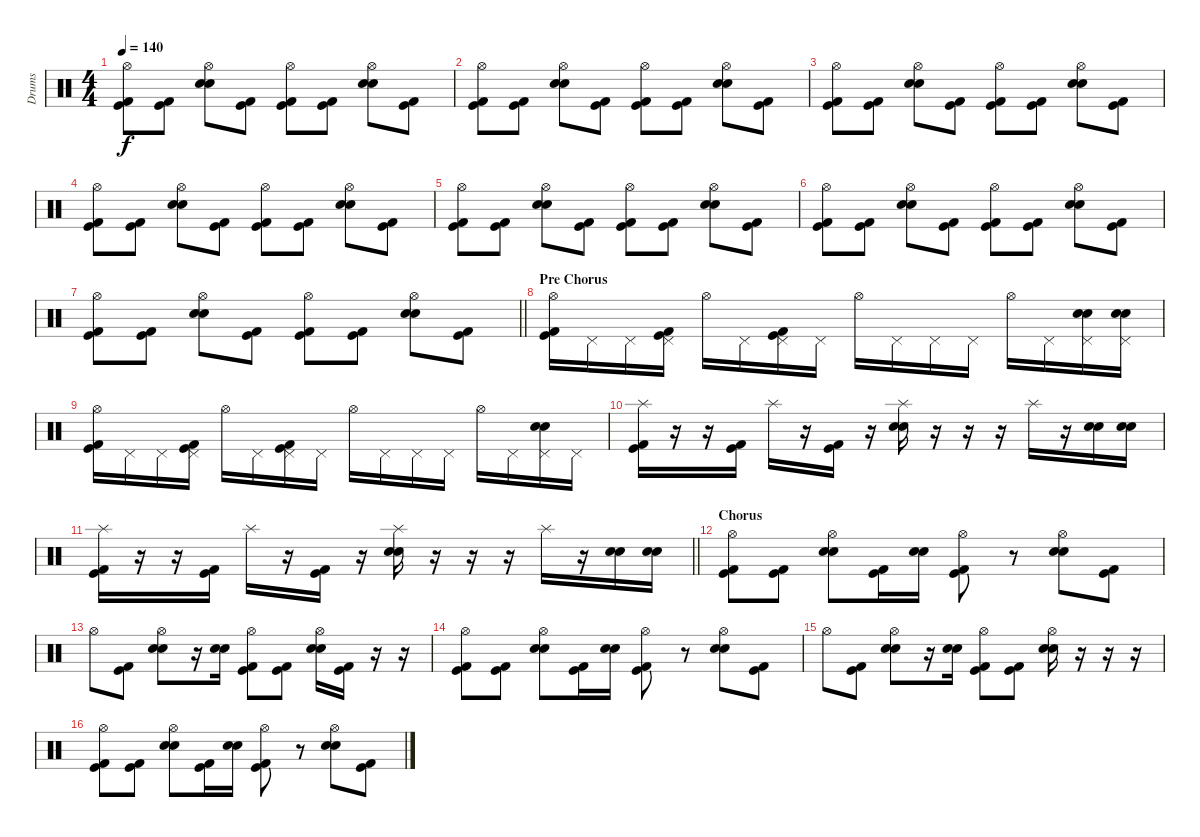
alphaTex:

\track ("Drums" "Drums") {instrument percussion}
\staff {score}
\articulation defaults
\ts (4 4)
\tempo 140
\clef neutral
\ks c
("Hi-Hat (open)" "Kick (hit) 2" "Kick (hit)").8{dy f} ("Kick (hit) 2" "Kick (hit)").8 ("Hi-Hat (open)" "Electric Snare (hit)" "Electric Snare (hit)").8 ("Kick (hit)" "Kick (hit) 2").8 ("Hi-Hat (open)" "Kick (hit) 2" "Kick (hit)").8 ("Kick (hit) 2" "Kick (hit)").8 ("Hi-Hat (open)" "Electric Snare (hit)" "Electric Snare (hit)").8 ("Kick (hit)" "Kick (hit) 2").8 |
("Hi-Hat (open)" "Kick (hit) 2" "Kick (hit)").8 ("Kick (hit) 2" "Kick (hit)").8 ("Hi-Hat (open)" "Electric Snare (hit)" "Electric Snare (hit)").8 ("Kick (hit)" "Kick (hit) 2").8 ("Hi-Hat (open)" "Kick (hit) 2" "Kick (hit)").8 ("Kick (hit) 2" "Kick (hit)").8 ("Hi-Hat (open)" "Electric Snare (hit)" "Electric Snare (hit)").8 ("Kick (hit)" "Kick (hit) 2").8 |
("Hi-Hat (open)" "Kick (hit) 2" "Kick (hit)").8 ("Kick (hit) 2" "Kick (hit)").8 ("Hi-Hat (open)" "Electric Snare (hit)" "Electric Snare (hit)").8 ("Kick (hit)" "Kick (hit) 2").8 ("Hi-Hat (open)" "Kick (hit) 2" "Kick (hit)").8 ("Kick (hit) 2" "Kick (hit)").8 ("Hi-Hat (open)" "Electric Snare (hit)" "Electric Snare (hit)").8 ("Kick (hit)" "Kick (hit) 2").8 |
("Hi-Hat (open)" "Kick (hit) 2" "Kick (hit)").8 ("Kick (hit) 2" "Kick (hit)").8 ("Hi-Hat (open)" "Electric Snare (hit)" "Electric Snare (hit)").8 ("Kick (hit)" "Kick (hit) 2").8 ("Hi-Hat (open)" "Kick (hit) 2" "Kick (hit)").8 ("Kick (hit) 2" "Kick (hit)").8 ("Hi-Hat (open)" "Electric Snare (hit)" "Electric Snare (hit)").8 ("Kick (hit)" "Kick (hit) 2").8 |
("Hi-Hat (open)" "Kick (hit) 2" "Kick (hit)").8 ("Kick (hit) 2" "Kick (hit)").8 ("Hi-Hat (open)" "Electric Snare (hit)" "Electric Snare (hit)").8 ("Kick (hit)" "Kick (hit) 2").8 ("Hi-Hat (open)" "Kick (hit) 2" "Kick (hit)").8 ("Kick (hit) 2" "Kick (hit)").8 ("Hi-Hat (open)" "Electric Snare (hit)" "Electric Snare (hit)").8 ("Kick (hit)" "Kick (hit) 2").8 |
("Hi-Hat (open)" "Kick (hit) 2" "Kick (hit)").8 ("Kick (hit) 2" "Kick (hit)").8 ("Hi-Hat (open)" "Electric Snare (hit)" "Electric Snare (hit)").8 ("Kick (hit)" "Kick (hit) 2").8 ("Hi-Hat (open)" "Kick (hit) 2" "Kick (hit)").8 ("Kick (hit) 2" "Kick (hit)").8 ("Hi-Hat (open)" "Electric Snare (hit)" "Electric Snare (hit)").8 ("Kick (hit)" "Kick (hit) 2").8 |
\barLineRight lightlight
("Hi-Hat (open)" "Kick (hit) 2" "Kick (hit)").8 ("Kick (hit) 2" "Kick (hit)").8 ("Hi-Hat (open)" "Electric Snare (hit)" "Electric Snare (hit)").8 ("Kick (hit)" "Kick (hit) 2").8 ("Hi-Hat (open)" "Kick (hit) 2" "Kick (hit)").8 ("Kick (hit) 2" "Kick (hit)").8 ("Hi-Hat (open)" "Electric Snare (hit)" "Electric Snare (hit)").8 ("Kick (hit)" "Kick (hit) 2").8 |
\section ("" "Pre Chorus")
("Hi-Hat (open)" "Kick (hit) 2" "Kick (hit)").16 "Pedal Hi-Hat (hit)".16 "Pedal Hi-Hat (hit)".16 ("Pedal Hi-Hat (hit)" "Kick (hit) 2" "Kick (hit)").16 "Hi-Hat (open)".16 "Pedal Hi-Hat (hit)".16 ("Pedal Hi-Hat (hit)" "Kick (hit) 2" "Kick (hit)").16 "Pedal Hi-Hat (hit)".16 "Hi-Hat (open)".16 "Pedal Hi-Hat (hit)".16 "Pedal Hi-Hat (hit)".16 "Pedal Hi-Hat (hit)".16 "Hi-Hat (open)".16 "Pedal Hi-Hat (hit)".16 ("Pedal Hi-Hat (hit)" "Electric Snare (hit)" "Electric Snare (hit)").16 ("Pedal Hi-Hat (hit)" "Electric Snare (hit)" "Electric Snare (hit)").16 |
("Hi-Hat (open)" "Kick (hit) 2" "Kick (hit)").16 "Pedal Hi-Hat (hit)".16 "Pedal Hi-Hat (hit)".16 ("Pedal Hi-Hat (hit)" "Kick (hit) 2" "Kick (hit)").16 "Hi-Hat (open)".16 "Pedal Hi-Hat (hit)".16 ("Pedal Hi-Hat (hit)" "Kick (hit) 2" "Kick (hit)").16 "Pedal Hi-Hat (hit)".16 "Hi-Hat (open)".16 "Pedal Hi-Hat (hit)".16 "Pedal Hi-Hat (hit)".16 "Pedal Hi-Hat (hit)".16 "Hi-Hat (open)".16 "Pedal Hi-Hat (hit)".16 ("Pedal Hi-Hat (hit)" "Electric Snare (hit)" "Electric Snare (hit)").16 "Pedal Hi-Hat (hit)".16 |
("Splash (hit)" "Kick (hit) 2" "Kick (hit)").16 r.16 r.16 ("Kick (hit) 2" "Kick (hit)").16 "Splash (hit)".16 r.16 ("Kick (hit) 2" "Kick (hit)").16 r.16 ("Splash (hit)" "Electric Snare (hit)" "Electric Snare (hit)").16 r.16 r.16 r.16 "Splash (hit)".16 r.16 ("Electric Snare (hit)" "Electric Snare (hit)").16 ("Electric Snare (hit)" "Electric Snare (hit)").16 |
\barLineRight lightlight
("Splash (hit)" "Kick (hit) 2" "Kick (hit)").16 r.16 r.16 ("Kick (hit) 2" "Kick (hit)").16 "Splash (hit)".16 r.16 ("Kick (hit) 2" "Kick (hit)").16 r.16 ("Splash (hit)" "Electric Snare (hit)" "Electric Snare (hit)").16 r.16 r.16 r.16 "Splash (hit)".16 r.16 ("Electric Snare (hit)" "Electric Snare (hit)").16 ("Electric Snare (hit)" "Electric Snare (hit)").16 |
\section ("" "Chorus")
("Hi-Hat (open)" "Kick (hit) 2" "Kick (hit)").8 ("Kick (hit) 2" "Kick (hit)").8 ("Hi-Hat (open)" "Electric Snare (hit)" "Electric Snare (hit)").8 ("Kick (hit) 2" "Kick (hit)").16 ("Electric Snare (hit)" "Electric Snare (hit)").16 ("Hi-Hat (open)" "Kick (hit) 2" "Kick (hit)").8 r.8 ("Hi-Hat (open)" "Electric Snare (hit)" "Electric Snare (hit)").8 ("Kick (hit)" "Kick (hit) 2").8 |
"Hi-Hat (open)".8 ("Kick (hit) 2" "Kick (hit)").8 ("Hi-Hat (open)" "Electric Snare (hit)" "Electric Snare (hit)").8 r.16 ("Electric Snare (hit)" "Electric Snare (hit)").16 ("Hi-Hat (open)" "Kick (hit) 2" "Kick (hit)").8 ("Kick (hit) 2" "Kick (hit)").8 ("Hi-Hat (open)" "Electric Snare (hit)" "Electric Snare (hit)").16 ("Kick (hit) 2" "Kick (hit)").16 r.16 r.16 |
("Hi-Hat (open)" "Kick (hit) 2" "Kick (hit)").8 ("Kick (hit) 2" "Kick (hit)").8 ("Hi-Hat (open)" "Electric Snare (hit)" "Electric Snare (hit)").8 ("Kick (hit) 2" "Kick (hit)").16 ("Electric Snare (hit)" "Electric Snare (hit)").16 ("Hi-Hat (open)" "Kick (hit) 2" "Kick (hit)").8 r.8 ("Hi-Hat (open)" "Electric Snare (hit)" "Electric Snare (hit)").8 ("Kick (hit)" "Kick (hit) 2").8 |
"Hi-Hat (open)".8 ("Kick (hit) 2" "Kick (hit)").8 ("Hi-Hat (open)" "Electric Snare (hit)" "Electric Snare (hit)").8 r.16 ("Electric Snare (hit)" "Electric Snare (hit)").16 ("Hi-Hat (open)" "Kick (hit) 2" "Kick (hit)").8 ("Kick (hit) 2" "Kick (hit)").8 ("Hi-Hat (open)" "Electric Snare (hit)" "Electric Snare (hit)").16 r.16 r.16 r.16 |
("Hi-Hat (open)" "Kick (hit) 2" "Kick (hit)").8 ("Kick (hit) 2" "Kick (hit)").8 ("Hi-Hat (open)" "Electric Snare (hit)" "Electric Snare (hit)").8 ("Kick (hit) 2" "Kick (hit)").16 ("Electric Snare (hit)" "Electric Snare (hit)").16 ("Hi-Hat (open)" "Kick (hit) 2" "Kick (hit)").8 r.8 ("Hi-Hat (open)" "Electric Snare (hit)" "Electric Snare (hit)").8 ("Kick (hit)" "Kick (hit) 2").8
